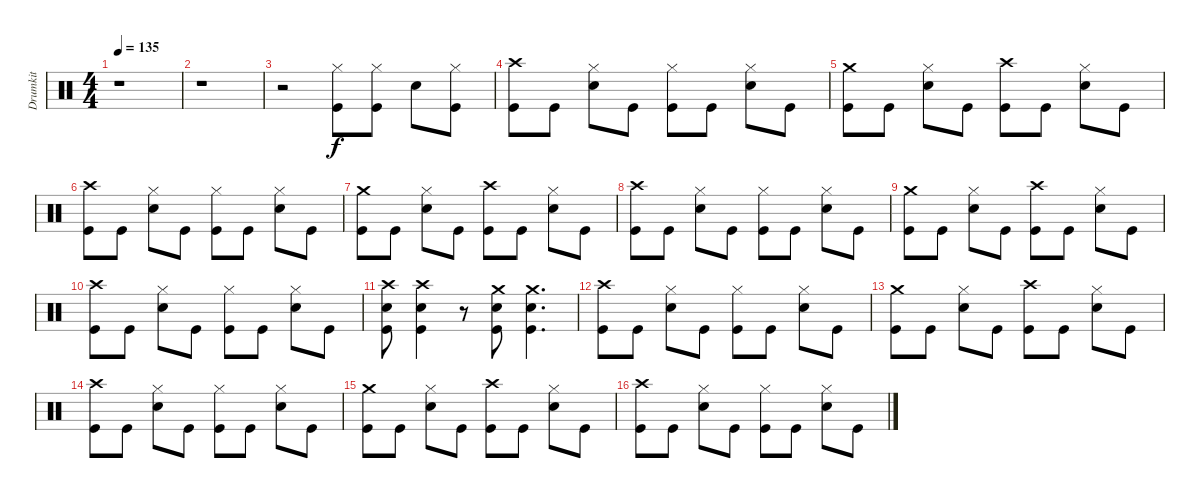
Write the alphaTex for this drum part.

\track ("Drumkit" "Drumkit") {instrument percussion}
\staff {score}
\articulation defaults
\ts (4 4)
\tempo 135
\clef neutral
\ks c
r.1{dy f} |
r.1 |
r.2 ("Hi-Hat (closed)" "Kick (hit)").8 ("Hi-Hat (closed)" "Kick (hit)").8 "Snare (hit) 2".8 ("Hi-Hat (closed)" "Kick (hit)").8 |
("Crash high (hit)" "Kick (hit)").8 "Kick (hit)".8 ("Hi-Hat (closed)" "Snare (hit) 2").8 "Kick (hit)".8 ("Hi-Hat (closed)" "Kick (hit)").8 "Kick (hit)".8 ("Hi-Hat (closed)" "Snare (hit) 2").8 "Kick (hit)".8 |
("Crash medium (hit)" "Kick (hit)").8 "Kick (hit)".8 ("Hi-Hat (closed)" "Snare (hit) 2").8 "Kick (hit)".8 ("Crash high (hit)" "Kick (hit)").8 "Kick (hit)".8 ("Hi-Hat (closed)" "Snare (hit) 2").8 "Kick (hit)".8 |
("Crash high (hit)" "Kick (hit)").8 "Kick (hit)".8 ("Hi-Hat (closed)" "Snare (hit) 2").8 "Kick (hit)".8 ("Hi-Hat (closed)" "Kick (hit)").8 "Kick (hit)".8 ("Hi-Hat (closed)" "Snare (hit) 2").8 "Kick (hit)".8 |
("Crash medium (hit)" "Kick (hit)").8 "Kick (hit)".8 ("Hi-Hat (closed)" "Snare (hit) 2").8 "Kick (hit)".8 ("Crash high (hit)" "Kick (hit)").8 "Kick (hit)".8 ("Hi-Hat (closed)" "Snare (hit) 2").8 "Kick (hit)".8 |
("Crash high (hit)" "Kick (hit)").8 "Kick (hit)".8 ("Hi-Hat (closed)" "Snare (hit) 2").8 "Kick (hit)".8 ("Hi-Hat (closed)" "Kick (hit)").8 "Kick (hit)".8 ("Hi-Hat (closed)" "Snare (hit) 2").8 "Kick (hit)".8 |
("Crash medium (hit)" "Kick (hit)").8 "Kick (hit)".8 ("Hi-Hat (closed)" "Snare (hit) 2").8 "Kick (hit)".8 ("Crash high (hit)" "Kick (hit)").8 "Kick (hit)".8 ("Hi-Hat (closed)" "Snare (hit) 2").8 "Kick (hit)".8 |
("Crash high (hit)" "Kick (hit)").8 "Kick (hit)".8 ("Hi-Hat (closed)" "Snare (hit) 2").8 "Kick (hit)".8 ("Hi-Hat (closed)" "Kick (hit)").8 "Kick (hit)".8 ("Hi-Hat (closed)" "Snare (hit) 2").8 "Kick (hit)".8 |
("Crash high (hit)" "Snare (hit) 2" "Kick (hit)").8 ("Crash high (hit)" "Snare (hit) 2" "Kick (hit)").4 r.8 ("Crash medium (hit)" "Snare (hit) 2" "Kick (hit)").8 ("Crash medium (hit)" "Snare (hit) 2" "Kick (hit)").4{d} |
("Crash high (hit)" "Kick (hit)").8 "Kick (hit)".8 ("Hi-Hat (closed)" "Snare (hit) 2").8 "Kick (hit)".8 ("Hi-Hat (closed)" "Kick (hit)").8 "Kick (hit)".8 ("Hi-Hat (closed)" "Snare (hit) 2").8 "Kick (hit)".8 |
("Crash medium (hit)" "Kick (hit)").8 "Kick (hit)".8 ("Hi-Hat (closed)" "Snare (hit) 2").8 "Kick (hit)".8 ("Crash high (hit)" "Kick (hit)").8 "Kick (hit)".8 ("Hi-Hat (closed)" "Snare (hit) 2").8 "Kick (hit)".8 |
("Crash high (hit)" "Kick (hit)").8 "Kick (hit)".8 ("Hi-Hat (closed)" "Snare (hit) 2").8 "Kick (hit)".8 ("Hi-Hat (closed)" "Kick (hit)").8 "Kick (hit)".8 ("Hi-Hat (closed)" "Snare (hit) 2").8 "Kick (hit)".8 |
("Crash medium (hit)" "Kick (hit)").8 "Kick (hit)".8 ("Hi-Hat (closed)" "Snare (hit) 2").8 "Kick (hit)".8 ("Crash high (hit)" "Kick (hit)").8 "Kick (hit)".8 ("Hi-Hat (closed)" "Snare (hit) 2").8 "Kick (hit)".8 |
("Crash high (hit)" "Kick (hit)").8 "Kick (hit)".8 ("Hi-Hat (closed)" "Snare (hit) 2").8 "Kick (hit)".8 ("Hi-Hat (closed)" "Kick (hit)").8 "Kick (hit)".8 ("Hi-Hat (closed)" "Snare (hit) 2").8 "Kick (hit)".8
